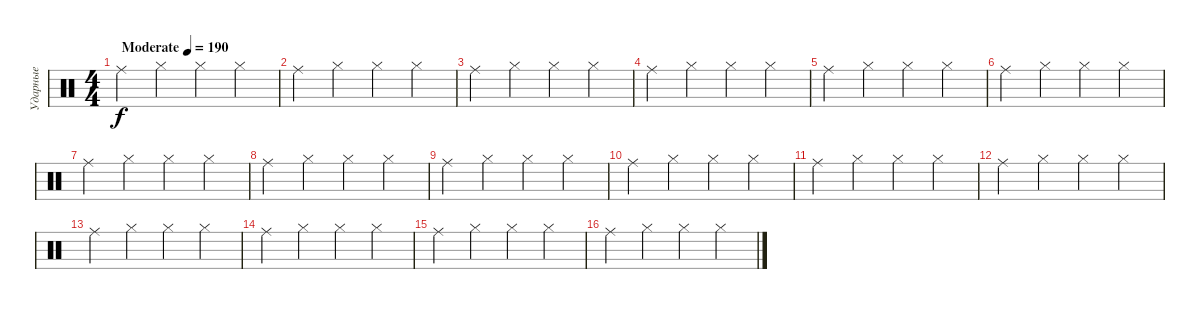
\track ("Ударные" "Ударные") {instrument percussion}
\staff {score}
\articulation defaults
\ts (4 4)
\tempo (190 "Moderate")
\clef neutral
\ks c "Ride (middle)".4{dy f} "Hi-Hat (closed)".4 "Hi-Hat (closed)".4 "Hi-Hat (closed)".4
|
"Ride (middle)".4 "Hi-Hat (closed)".4 "Hi-Hat (closed)".4 "Hi-Hat (closed)".4 |
"Ride (middle)".4 "Hi-Hat (closed)".4 "Hi-Hat (closed)".4 "Hi-Hat (closed)".4 |
"Ride (middle)".4 "Hi-Hat (closed)".4 "Hi-Hat (closed)".4 "Hi-Hat (closed)".4 |
"Ride (middle)".4 "Hi-Hat (closed)".4 "Hi-Hat (closed)".4 "Hi-Hat (closed)".4 |
"Ride (middle)".4 "Hi-Hat (closed)".4 "Hi-Hat (closed)".4 "Hi-Hat (closed)".4 |
"Ride (middle)".4 "Hi-Hat (closed)".4 "Hi-Hat (closed)".4 "Hi-Hat (closed)".4 |
"Ride (middle)".4 "Hi-Hat (closed)".4 "Hi-Hat (closed)".4 "Hi-Hat (closed)".4 |
"Ride (middle)".4 "Hi-Hat (closed)".4 "Hi-Hat (closed)".4 "Hi-Hat (closed)".4 |
"Ride (middle)".4 "Hi-Hat (closed)".4 "Hi-Hat (closed)".4 "Hi-Hat (closed)".4 |
"Ride (middle)".4 "Hi-Hat (closed)".4 "Hi-Hat (closed)".4 "Hi-Hat (closed)".4 |
"Ride (middle)".4 "Hi-Hat (closed)".4 "Hi-Hat (closed)".4 "Hi-Hat (closed)".4 |
"Ride (middle)".4 "Hi-Hat (closed)".4 "Hi-Hat (closed)".4 "Hi-Hat (closed)".4 |
"Ride (middle)".4 "Hi-Hat (closed)".4 "Hi-Hat (closed)".4 "Hi-Hat (closed)".4 |
"Ride (middle)".4 "Hi-Hat (closed)".4 "Hi-Hat (closed)".4 "Hi-Hat (closed)".4 |
"Ride (middle)".4 "Hi-Hat (closed)".4 "Hi-Hat (closed)".4 "Hi-Hat (closed)".4
